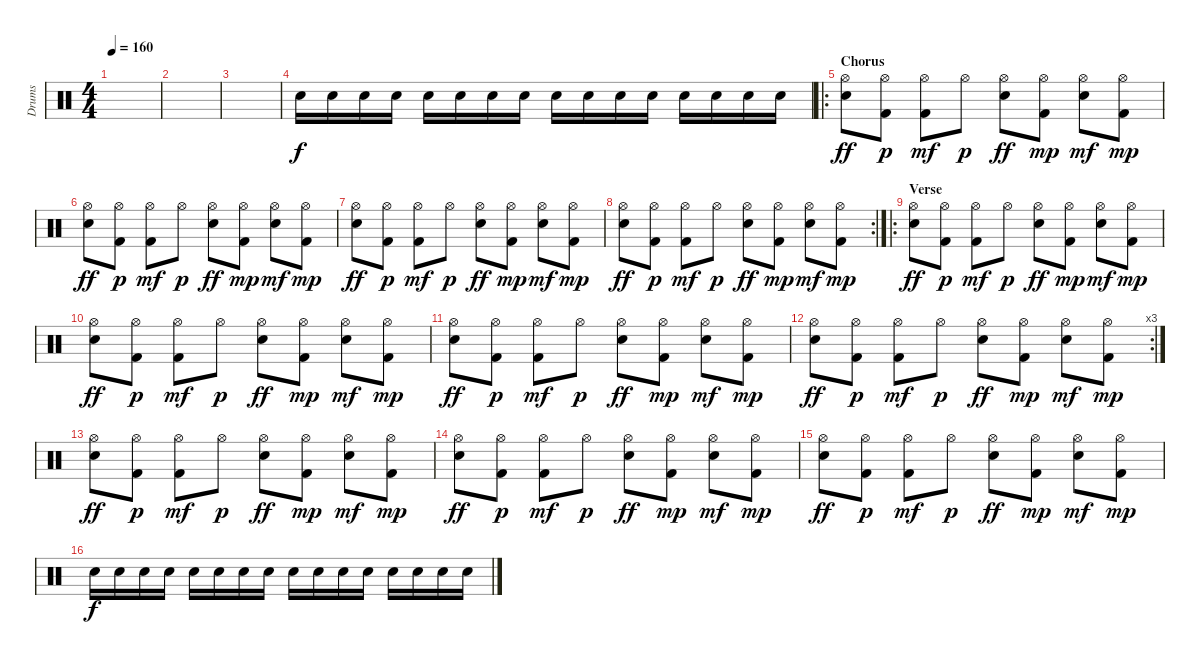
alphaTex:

\track ("Drums" "Drums") {instrument percussion}
\staff {score}
\articulation defaults
\ts (4 4)
\tempo 160
\clef neutral
\ks c
|
|
|
"Electric Snare (hit)".16 "Electric Snare (hit)".16 "Electric Snare (hit)".16 "Electric Snare (hit)".16 "Electric Snare (hit)".16 "Electric Snare (hit)".16 "Electric Snare (hit)".16 "Electric Snare (hit)".16 "Electric Snare (hit)".16 "Electric Snare (hit)".16 "Electric Snare (hit)".16 "Electric Snare (hit)".16 "Electric Snare (hit)".16 "Electric Snare (hit)".16 "Electric Snare (hit)".16 "Electric Snare (hit)".16 |
\ro
\section ("" "Chorus")
("Electric Snare (hit)" "Hi-Hat (open)").8{dy ff} ("Kick (hit) 2" "Hi-Hat (open)").8{dy p} ("Kick (hit) 2" "Hi-Hat (open)").8{dy mf} "Hi-Hat (open)".8{dy p} ("Electric Snare (hit)" "Hi-Hat (open)").8{dy ff} ("Kick (hit) 2" "Hi-Hat (open)").8{dy mp} ("Electric Snare (hit)" "Hi-Hat (open)").8{dy mf} ("Kick (hit) 2" "Hi-Hat (open)").8{dy mp} |
("Electric Snare (hit)" "Hi-Hat (open)").8{dy ff} ("Kick (hit) 2" "Hi-Hat (open)").8{dy p} ("Kick (hit) 2" "Hi-Hat (open)").8{dy mf} "Hi-Hat (open)".8{dy p} ("Electric Snare (hit)" "Hi-Hat (open)").8{dy ff} ("Kick (hit) 2" "Hi-Hat (open)").8{dy mp} ("Electric Snare (hit)" "Hi-Hat (open)").8{dy mf} ("Kick (hit) 2" "Hi-Hat (open)").8{dy mp} |
("Electric Snare (hit)" "Hi-Hat (open)").8{dy ff} ("Kick (hit) 2" "Hi-Hat (open)").8{dy p} ("Kick (hit) 2" "Hi-Hat (open)").8{dy mf} "Hi-Hat (open)".8{dy p} ("Electric Snare (hit)" "Hi-Hat (open)").8{dy ff} ("Kick (hit) 2" "Hi-Hat (open)").8{dy mp} ("Electric Snare (hit)" "Hi-Hat (open)").8{dy mf} ("Kick (hit) 2" "Hi-Hat (open)").8{dy mp} |
\rc 2
("Electric Snare (hit)" "Hi-Hat (open)").8{dy ff} ("Kick (hit) 2" "Hi-Hat (open)").8{dy p} ("Kick (hit) 2" "Hi-Hat (open)").8{dy mf} "Hi-Hat (open)".8{dy p} ("Electric Snare (hit)" "Hi-Hat (open)").8{dy ff} ("Kick (hit) 2" "Hi-Hat (open)").8{dy mp} ("Electric Snare (hit)" "Hi-Hat (open)").8{dy mf} ("Kick (hit) 2" "Hi-Hat (open)").8{dy mp} |
\ro
\section ("" "Verse")
("Electric Snare (hit)" "Hi-Hat (open)").8{dy ff} ("Kick (hit) 2" "Hi-Hat (open)").8{dy p} ("Kick (hit) 2" "Hi-Hat (open)").8{dy mf} "Hi-Hat (open)".8{dy p} ("Electric Snare (hit)" "Hi-Hat (open)").8{dy ff} ("Kick (hit) 2" "Hi-Hat (open)").8{dy mp} ("Electric Snare (hit)" "Hi-Hat (open)").8{dy mf} ("Kick (hit) 2" "Hi-Hat (open)").8{dy mp} |
("Electric Snare (hit)" "Hi-Hat (open)").8{dy ff} ("Kick (hit) 2" "Hi-Hat (open)").8{dy p} ("Kick (hit) 2" "Hi-Hat (open)").8{dy mf} "Hi-Hat (open)".8{dy p} ("Electric Snare (hit)" "Hi-Hat (open)").8{dy ff} ("Kick (hit) 2" "Hi-Hat (open)").8{dy mp} ("Electric Snare (hit)" "Hi-Hat (open)").8{dy mf} ("Kick (hit) 2" "Hi-Hat (open)").8{dy mp} |
("Electric Snare (hit)" "Hi-Hat (open)").8{dy ff} ("Kick (hit) 2" "Hi-Hat (open)").8{dy p} ("Kick (hit) 2" "Hi-Hat (open)").8{dy mf} "Hi-Hat (open)".8{dy p} ("Electric Snare (hit)" "Hi-Hat (open)").8{dy ff} ("Kick (hit) 2" "Hi-Hat (open)").8{dy mp} ("Electric Snare (hit)" "Hi-Hat (open)").8{dy mf} ("Kick (hit) 2" "Hi-Hat (open)").8{dy mp} |
\rc 3
("Electric Snare (hit)" "Hi-Hat (open)").8{dy ff} ("Kick (hit) 2" "Hi-Hat (open)").8{dy p} ("Kick (hit) 2" "Hi-Hat (open)").8{dy mf} "Hi-Hat (open)".8{dy p} ("Electric Snare (hit)" "Hi-Hat (open)").8{dy ff} ("Kick (hit) 2" "Hi-Hat (open)").8{dy mp} ("Electric Snare (hit)" "Hi-Hat (open)").8{dy mf} ("Kick (hit) 2" "Hi-Hat (open)").8{dy mp} |
("Electric Snare (hit)" "Hi-Hat (open)").8{dy ff} ("Kick (hit) 2" "Hi-Hat (open)").8{dy p} ("Kick (hit) 2" "Hi-Hat (open)").8{dy mf} "Hi-Hat (open)".8{dy p} ("Electric Snare (hit)" "Hi-Hat (open)").8{dy ff} ("Kick (hit) 2" "Hi-Hat (open)").8{dy mp} ("Electric Snare (hit)" "Hi-Hat (open)").8{dy mf} ("Kick (hit) 2" "Hi-Hat (open)").8{dy mp} |
("Electric Snare (hit)" "Hi-Hat (open)").8{dy ff} ("Kick (hit) 2" "Hi-Hat (open)").8{dy p} ("Kick (hit) 2" "Hi-Hat (open)").8{dy mf} "Hi-Hat (open)".8{dy p} ("Electric Snare (hit)" "Hi-Hat (open)").8{dy ff} ("Kick (hit) 2" "Hi-Hat (open)").8{dy mp} ("Electric Snare (hit)" "Hi-Hat (open)").8{dy mf} ("Kick (hit) 2" "Hi-Hat (open)").8{dy mp} |
("Electric Snare (hit)" "Hi-Hat (open)").8{dy ff} ("Kick (hit) 2" "Hi-Hat (open)").8{dy p} ("Kick (hit) 2" "Hi-Hat (open)").8{dy mf} "Hi-Hat (open)".8{dy p} ("Electric Snare (hit)" "Hi-Hat (open)").8{dy ff} ("Kick (hit) 2" "Hi-Hat (open)").8{dy mp} ("Electric Snare (hit)" "Hi-Hat (open)").8{dy mf} ("Kick (hit) 2" "Hi-Hat (open)").8{dy mp} |
"Electric Snare (hit)".16{dy f} "Electric Snare (hit)".16 "Electric Snare (hit)".16 "Electric Snare (hit)".16 "Electric Snare (hit)".16 "Electric Snare (hit)".16 "Electric Snare (hit)".16 "Electric Snare (hit)".16 "Electric Snare (hit)".16 "Electric Snare (hit)".16 "Electric Snare (hit)".16 "Electric Snare (hit)".16 "Electric Snare (hit)".16 "Electric Snare (hit)".16 "Electric Snare (hit)".16 "Electric Snare (hit)".16
